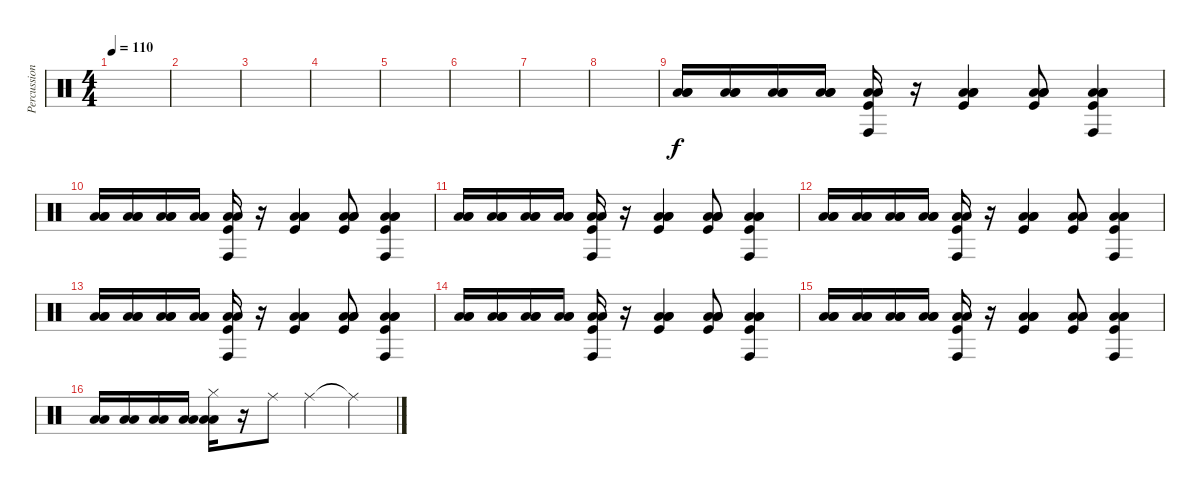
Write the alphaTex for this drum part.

\track ("Percussion 1" "Percussion") {instrument percussion}
\staff {score}
\articulation defaults
\ts (4 4)
\tempo 110
\clef neutral
\ks c
|
|
|
|
|
|
|
|
("Low Floor Tom (hit)" "Low Floor Tom (hit)" "Low Tom (hit)").16 ("Low Floor Tom (hit)" "Low Floor Tom (hit)" "Low Tom (hit)").16 ("Low Floor Tom (hit)" "Low Floor Tom (hit)" "Low Tom (hit)").16 ("Low Floor Tom (hit)" "Low Floor Tom (hit)" "Low Tom (hit)").16 ("Low Floor Tom (hit)" "Low Floor Tom (hit)" "Conga high (hit)" "Kick (hit)").16 r.16 ("Low Floor Tom (hit)" "Low Floor Tom (hit)" "Low Tom (hit)" "Kick (hit)").4 ("Low Floor Tom (hit)" "Low Tom (hit)" "Low Floor Tom (hit)" "Kick (hit)").8 ("Low Floor Tom (hit)" "Low Tom (hit)" "Low Floor Tom (hit)" "Conga high (hit)" "Kick (hit)").4 |
("Low Floor Tom (hit)" "Low Floor Tom (hit)" "Low Tom (hit)").16 ("Low Floor Tom (hit)" "Low Floor Tom (hit)" "Low Tom (hit)").16 ("Low Floor Tom (hit)" "Low Floor Tom (hit)" "Low Tom (hit)").16 ("Low Floor Tom (hit)" "Low Floor Tom (hit)" "Low Tom (hit)").16 ("Low Floor Tom (hit)" "Low Floor Tom (hit)" "Conga high (hit)" "Kick (hit)").16 r.16 ("Low Floor Tom (hit)" "Low Floor Tom (hit)" "Low Tom (hit)" "Kick (hit)").4 ("Low Floor Tom (hit)" "Low Tom (hit)" "Low Floor Tom (hit)" "Kick (hit)").8 ("Low Floor Tom (hit)" "Low Tom (hit)" "Low Floor Tom (hit)" "Conga high (hit)" "Kick (hit)").4 |
("Low Floor Tom (hit)" "Low Floor Tom (hit)" "Low Tom (hit)").16 ("Low Floor Tom (hit)" "Low Floor Tom (hit)" "Low Tom (hit)").16 ("Low Floor Tom (hit)" "Low Floor Tom (hit)" "Low Tom (hit)").16 ("Low Floor Tom (hit)" "Low Floor Tom (hit)" "Low Tom (hit)").16 ("Low Floor Tom (hit)" "Low Floor Tom (hit)" "Conga high (hit)" "Kick (hit)").16 r.16 ("Low Floor Tom (hit)" "Low Floor Tom (hit)" "Low Tom (hit)" "Kick (hit)").4 ("Low Floor Tom (hit)" "Low Tom (hit)" "Low Floor Tom (hit)" "Kick (hit)").8 ("Low Floor Tom (hit)" "Low Tom (hit)" "Low Floor Tom (hit)" "Conga high (hit)" "Kick (hit)").4 |
("Low Floor Tom (hit)" "Low Floor Tom (hit)" "Low Tom (hit)").16 ("Low Floor Tom (hit)" "Low Floor Tom (hit)" "Low Tom (hit)").16 ("Low Floor Tom (hit)" "Low Floor Tom (hit)" "Low Tom (hit)").16 ("Low Floor Tom (hit)" "Low Floor Tom (hit)" "Low Tom (hit)").16 ("Low Floor Tom (hit)" "Low Floor Tom (hit)" "Conga high (hit)" "Kick (hit)").16 r.16 ("Low Floor Tom (hit)" "Low Floor Tom (hit)" "Low Tom (hit)" "Kick (hit)").4 ("Low Floor Tom (hit)" "Low Tom (hit)" "Low Floor Tom (hit)" "Kick (hit)").8 ("Low Floor Tom (hit)" "Low Tom (hit)" "Low Floor Tom (hit)" "Conga high (hit)" "Kick (hit)").4 |
("Low Floor Tom (hit)" "Low Floor Tom (hit)" "Low Tom (hit)").16 ("Low Floor Tom (hit)" "Low Floor Tom (hit)" "Low Tom (hit)").16 ("Low Floor Tom (hit)" "Low Floor Tom (hit)" "Low Tom (hit)").16 ("Low Floor Tom (hit)" "Low Floor Tom (hit)" "Low Tom (hit)").16 ("Low Floor Tom (hit)" "Low Floor Tom (hit)" "Conga high (hit)" "Kick (hit)").16 r.16 ("Low Floor Tom (hit)" "Low Floor Tom (hit)" "Low Tom (hit)" "Kick (hit)").4 ("Low Floor Tom (hit)" "Low Tom (hit)" "Low Floor Tom (hit)" "Kick (hit)").8 ("Low Floor Tom (hit)" "Low Tom (hit)" "Low Floor Tom (hit)" "Conga high (hit)" "Kick (hit)").4 |
("Low Floor Tom (hit)" "Low Floor Tom (hit)" "Low Tom (hit)").16 ("Low Floor Tom (hit)" "Low Floor Tom (hit)" "Low Tom (hit)").16 ("Low Floor Tom (hit)" "Low Floor Tom (hit)" "Low Tom (hit)").16 ("Low Floor Tom (hit)" "Low Floor Tom (hit)" "Low Tom (hit)").16 ("Low Floor Tom (hit)" "Low Floor Tom (hit)" "Conga high (hit)" "Kick (hit)").16 r.16 ("Low Floor Tom (hit)" "Low Floor Tom (hit)" "Low Tom (hit)" "Kick (hit)").4 ("Low Floor Tom (hit)" "Low Tom (hit)" "Low Floor Tom (hit)" "Kick (hit)").8 ("Low Floor Tom (hit)" "Low Tom (hit)" "Low Floor Tom (hit)" "Conga high (hit)" "Kick (hit)").4 |
("Low Floor Tom (hit)" "Low Floor Tom (hit)" "Low Tom (hit)").16 ("Low Floor Tom (hit)" "Low Floor Tom (hit)" "Low Tom (hit)").16 ("Low Floor Tom (hit)" "Low Floor Tom (hit)" "Low Tom (hit)").16 ("Low Floor Tom (hit)" "Low Floor Tom (hit)" "Low Tom (hit)").16 ("Low Floor Tom (hit)" "Low Floor Tom (hit)" "Conga high (hit)" "Kick (hit)").16 r.16 ("Low Floor Tom (hit)" "Low Floor Tom (hit)" "Low Tom (hit)" "Kick (hit)").4 ("Low Floor Tom (hit)" "Low Tom (hit)" "Low Floor Tom (hit)" "Kick (hit)").8 ("Low Floor Tom (hit)" "Low Tom (hit)" "Low Floor Tom (hit)" "Conga high (hit)" "Kick (hit)").4 |
("Low Floor Tom (hit)" "Low Floor Tom (hit)").16 ("Low Floor Tom (hit)" "Low Floor Tom (hit)").16 ("Low Floor Tom (hit)" "Low Floor Tom (hit)").16 ("Low Floor Tom (hit)" "Low Floor Tom (hit)").16 ("Low Floor Tom (hit)" "Low Floor Tom (hit)" "Hi-Hat (closed)").16 r.16 "Ride (middle)".8 "Ride (middle)".4 "Ride (middle)"{t}.4
